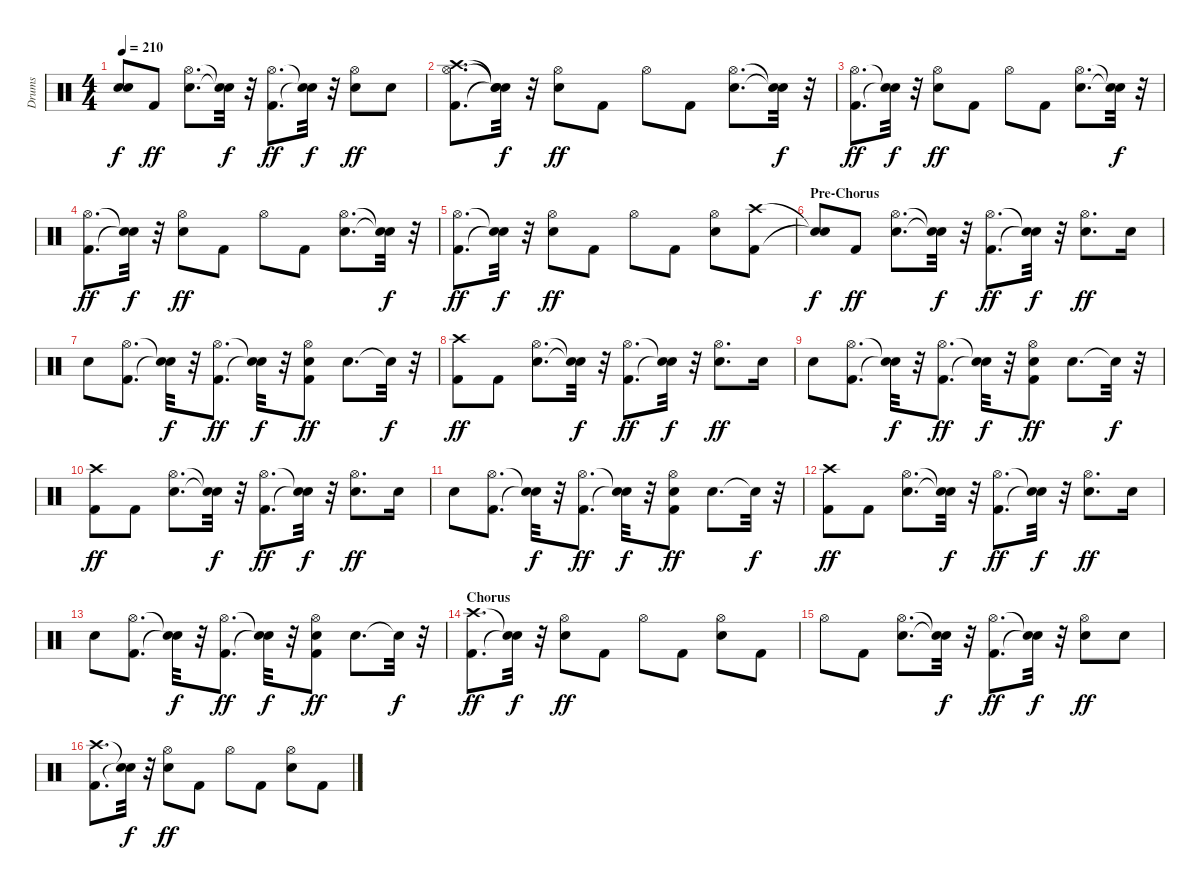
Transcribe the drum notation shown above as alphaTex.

\track ("Drums" "Drums") {instrument percussion}
\staff {score}
\articulation defaults
\ts (4 4)
\tempo 210
\clef neutral
\ks c
("Snare (hit)"{t} "Snare (hit)"{t}).8{dy f} "Kick (hit) 2".8{dy ff} ("Snare (hit) 2" "Hi-Hat (open)").8{d} ("Snare (hit)"{t} "Snare (hit)"{t}).32{dy f} r.32 ("Kick (hit) 2" "Hi-Hat (open)").8{d dy ff} ("Snare (hit)"{t} "Snare (hit)"{t}).32{dy f} r.32 ("Snare (hit) 2" "Hi-Hat (open)").8{dy ff} "Snare (hit) 2".8 |
("Kick (hit) 2" "Hi-Hat (open)" "Crash high (hit)").8{d} ("Snare (hit)"{t} "Snare (hit)"{t} "Snare (hit)"{t}).32{dy f} r.32 ("Snare (hit) 2" "Hi-Hat (open)").8{dy ff} "Kick (hit) 2".8 "Hi-Hat (open)".8 "Kick (hit) 2".8 ("Snare (hit) 2" "Hi-Hat (open)").8{d} ("Snare (hit)"{t} "Snare (hit)"{t}).32{dy f} r.32 |
("Kick (hit) 2" "Hi-Hat (open)").8{d dy ff} ("Snare (hit)"{t} "Snare (hit)"{t}).32{dy f} r.32 ("Snare (hit) 2" "Hi-Hat (open)").8{dy ff} "Kick (hit) 2".8 "Hi-Hat (open)".8 "Kick (hit) 2".8 ("Snare (hit) 2" "Hi-Hat (open)").8{d} ("Snare (hit)"{t} "Snare (hit)"{t}).32{dy f} r.32 |
("Kick (hit) 2" "Hi-Hat (open)").8{d dy ff} ("Snare (hit)"{t} "Snare (hit)"{t}).32{dy f} r.32 ("Snare (hit) 2" "Hi-Hat (open)").8{dy ff} "Kick (hit) 2".8 "Hi-Hat (open)".8 "Kick (hit) 2".8 ("Snare (hit) 2" "Hi-Hat (open)").8{d} ("Snare (hit)"{t} "Snare (hit)"{t}).32{dy f} r.32 |
("Kick (hit) 2" "Hi-Hat (open)").8{d dy ff} ("Snare (hit)"{t} "Snare (hit)"{t}).32{dy f} r.32 ("Snare (hit) 2" "Hi-Hat (open)").8{dy ff} "Kick (hit) 2".8 "Hi-Hat (open)".8 "Kick (hit) 2".8 ("Snare (hit) 2" "Hi-Hat (open)").8 ("Kick (hit) 2" "Crash high (hit)").8 |
\section ("" "Pre-Chorus")
("Snare (hit)"{t} "Snare (hit)"{t}).8{dy f} "Kick (hit) 2".8{dy ff} ("Snare (hit) 2" "Hi-Hat (open)").8{d} ("Snare (hit)"{t} "Snare (hit)"{t}).32{dy f} r.32 ("Kick (hit) 2" "Hi-Hat (open)").8{d dy ff} ("Snare (hit)"{t} "Snare (hit)"{t}).32{dy f} r.32 ("Snare (hit) 2" "Hi-Hat (open)").8{d dy ff} "Snare (hit) 2".16 |
"Snare (hit) 2".8 ("Kick (hit) 2" "Hi-Hat (open)").8{d} ("Snare (hit)"{t} "Snare (hit)"{t}).32{dy f} r.32 ("Kick (hit) 2" "Hi-Hat (open)").8{d dy ff} ("Snare (hit)"{t} "Snare (hit)"{t}).32{dy f} r.32 ("Kick (hit) 2" "Snare (hit) 2" "Hi-Hat (open)").8{dy ff} "Snare (hit) 2".8{d} "Snare (hit)"{t}.32{dy f} r.32 |
("Kick (hit) 2" "Crash high (hit)").8{dy ff} "Kick (hit) 2".8 ("Snare (hit) 2" "Hi-Hat (open)").8{d} ("Snare (hit)"{t} "Snare (hit)"{t}).32{dy f} r.32 ("Kick (hit) 2" "Hi-Hat (open)").8{d dy ff} ("Snare (hit)"{t} "Snare (hit)"{t}).32{dy f} r.32 ("Snare (hit) 2" "Hi-Hat (open)").8{d dy ff} "Snare (hit) 2".16 |
"Snare (hit) 2".8 ("Kick (hit) 2" "Hi-Hat (open)").8{d} ("Snare (hit)"{t} "Snare (hit)"{t}).32{dy f} r.32 ("Kick (hit) 2" "Hi-Hat (open)").8{d dy ff} ("Snare (hit)"{t} "Snare (hit)"{t}).32{dy f} r.32 ("Kick (hit) 2" "Snare (hit) 2" "Hi-Hat (open)").8{dy ff} "Snare (hit) 2".8{d} "Snare (hit)"{t}.32{dy f} r.32 |
("Kick (hit) 2" "Crash high (hit)").8{dy ff} "Kick (hit) 2".8 ("Snare (hit) 2" "Hi-Hat (open)").8{d} ("Snare (hit)"{t} "Snare (hit)"{t}).32{dy f} r.32 ("Kick (hit) 2" "Hi-Hat (open)").8{d dy ff} ("Snare (hit)"{t} "Snare (hit)"{t}).32{dy f} r.32 ("Snare (hit) 2" "Hi-Hat (open)").8{d dy ff} "Snare (hit) 2".16 |
"Snare (hit) 2".8 ("Kick (hit) 2" "Hi-Hat (open)").8{d} ("Snare (hit)"{t} "Snare (hit)"{t}).32{dy f} r.32 ("Kick (hit) 2" "Hi-Hat (open)").8{d dy ff} ("Snare (hit)"{t} "Snare (hit)"{t}).32{dy f} r.32 ("Kick (hit) 2" "Snare (hit) 2" "Hi-Hat (open)").8{dy ff} "Snare (hit) 2".8{d} "Snare (hit)"{t}.32{dy f} r.32 |
("Kick (hit) 2" "Crash high (hit)").8{dy ff} "Kick (hit) 2".8 ("Snare (hit) 2" "Hi-Hat (open)").8{d} ("Snare (hit)"{t} "Snare (hit)"{t}).32{dy f} r.32 ("Kick (hit) 2" "Hi-Hat (open)").8{d dy ff} ("Snare (hit)"{t} "Snare (hit)"{t}).32{dy f} r.32 ("Snare (hit) 2" "Hi-Hat (open)").8{d dy ff} "Snare (hit) 2".16 |
"Snare (hit) 2".8 ("Kick (hit) 2" "Hi-Hat (open)").8{d} ("Snare (hit)"{t} "Snare (hit)"{t}).32{dy f} r.32 ("Kick (hit) 2" "Hi-Hat (open)").8{d dy ff} ("Snare (hit)"{t} "Snare (hit)"{t}).32{dy f} r.32 ("Kick (hit) 2" "Snare (hit) 2" "Hi-Hat (open)").8{dy ff} "Snare (hit) 2".8{d} "Snare (hit)"{t}.32{dy f} r.32 |
\section ("" "Chorus")
("Kick (hit) 2" "Crash high (hit)").8{d dy ff} ("Snare (hit)"{t} "Snare (hit)"{t}).32{dy f} r.32 ("Snare (hit) 2" "Hi-Hat (open)").8{dy ff} "Kick (hit) 2".8 "Hi-Hat (open)".8 "Kick (hit) 2".8 ("Snare (hit) 2" "Hi-Hat (open)").8 "Kick (hit) 2".8 |
"Hi-Hat (open)".8 "Kick (hit) 2".8 ("Snare (hit) 2" "Hi-Hat (open)").8{d} ("Snare (hit)"{t} "Snare (hit)"{t}).32{dy f} r.32 ("Kick (hit) 2" "Hi-Hat (open)").8{d dy ff} ("Snare (hit)"{t} "Snare (hit)"{t}).32{dy f} r.32 ("Snare (hit) 2" "Hi-Hat (open)").8{dy ff} "Snare (hit) 2".8 |
("Kick (hit) 2" "Crash high (hit)").8{d} ("Snare (hit)"{t} "Snare (hit)"{t}).32{dy f} r.32 ("Snare (hit) 2" "Hi-Hat (open)").8{dy ff} "Kick (hit) 2".8 "Hi-Hat (open)".8 "Kick (hit) 2".8 ("Snare (hit) 2" "Hi-Hat (open)").8 "Kick (hit) 2".8
